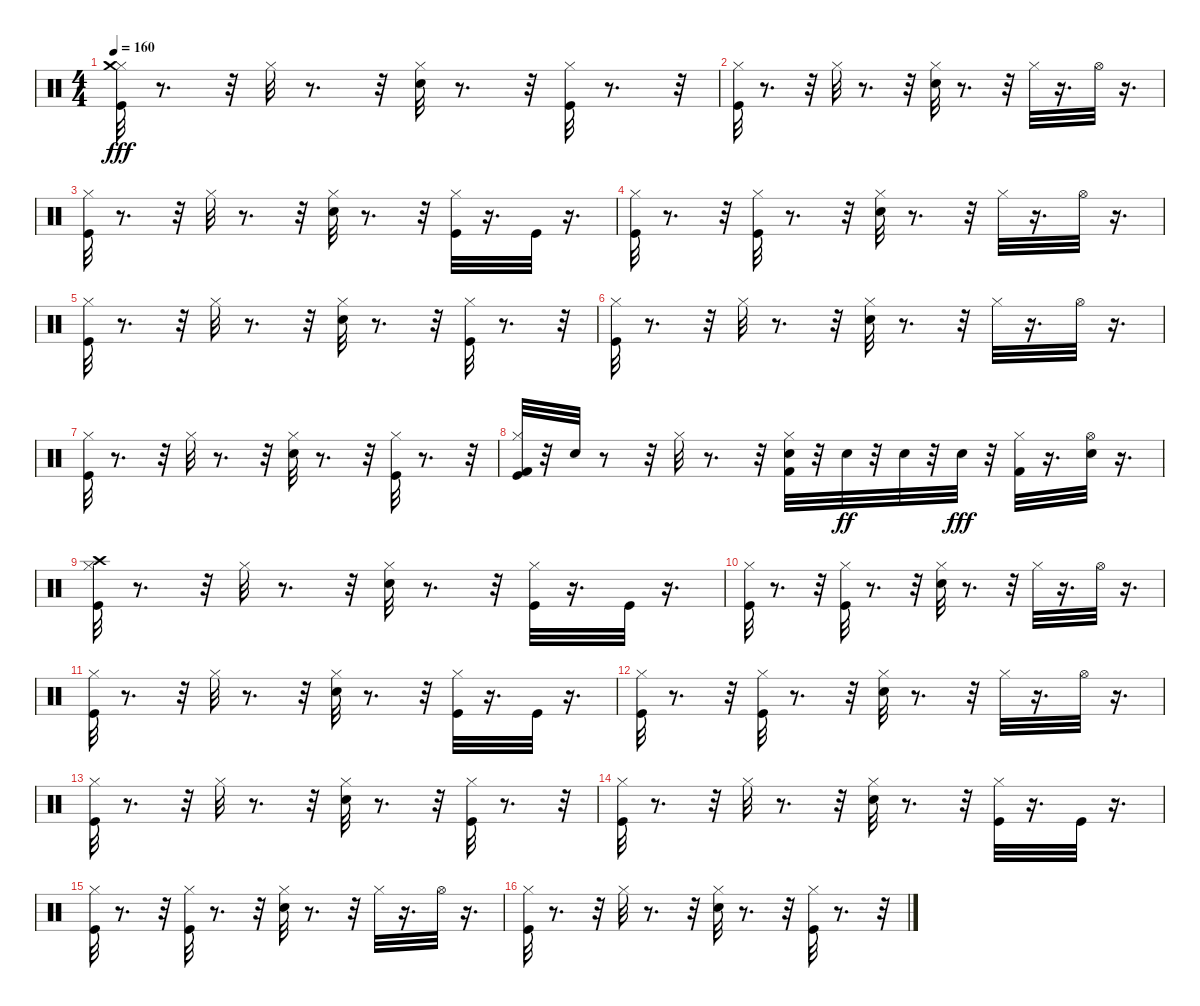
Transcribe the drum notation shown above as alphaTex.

\track "" {instrument percussion}
\staff {score}
\articulation defaults
\ts (4 4)
\tempo 160
\clef neutral
\ks c
("Kick (hit)" "Hi-Hat (closed)" "Crash medium (hit)").32{dy fff} r.8{d} r.32 "Hi-Hat (closed)".32 r.8{d} r.32 ("Electric Snare (hit)" "Hi-Hat (closed)").32 r.8{d} r.32 ("Kick (hit)" "Hi-Hat (closed)").32 r.8{d} r.32 |
("Hi-Hat (closed)" "Kick (hit)").32 r.8{d} r.32 "Hi-Hat (closed)".32 r.8{d} r.32 ("Hi-Hat (closed)" "Electric Snare (hit)").32 r.8{d} r.32 "Hi-Hat (closed)".32 r.16{d} "Hi-Hat (open)".32 r.16{d} |
("Hi-Hat (closed)" "Kick (hit)").32 r.8{d} r.32 "Hi-Hat (closed)".32 r.8{d} r.32 ("Hi-Hat (closed)" "Electric Snare (hit)").32 r.8{d} r.32 ("Hi-Hat (closed)" "Kick (hit)").32 r.16{d} "Kick (hit)".32 r.16{d} |
("Hi-Hat (closed)" "Kick (hit)").32 r.8{d} r.32 ("Hi-Hat (closed)" "Kick (hit)").32 r.8{d} r.32 ("Hi-Hat (closed)" "Electric Snare (hit)").32 r.8{d} r.32 "Hi-Hat (closed)".32 r.16{d} "Hi-Hat (open)".32 r.16{d} |
("Hi-Hat (closed)" "Kick (hit)").32 r.8{d} r.32 "Hi-Hat (closed)".32 r.8{d} r.32 ("Hi-Hat (closed)" "Electric Snare (hit)").32 r.8{d} r.32 ("Hi-Hat (closed)" "Kick (hit)").32 r.8{d} r.32 |
("Hi-Hat (closed)" "Kick (hit)").32 r.8{d} r.32 "Hi-Hat (closed)".32 r.8{d} r.32 ("Hi-Hat (closed)" "Electric Snare (hit)").32 r.8{d} r.32 "Hi-Hat (closed)".32 r.16{d} "Hi-Hat (open)".32 r.16{d} |
("Hi-Hat (closed)" "Kick (hit)").32 r.8{d} r.32 "Hi-Hat (closed)".32 r.8{d} r.32 ("Hi-Hat (closed)" "Electric Snare (hit)").32 r.8{d} r.32 ("Kick (hit)" "Hi-Hat (closed)").32 r.8{d} r.32 |
("Hi-Hat (closed)" "Kick (hit)" "Kick (hit) 2").32 r.32 "Electric Snare (hit)".32 r.8 r.32 "Hi-Hat (closed)".32 r.8{d} r.32 ("Hi-Hat (closed)" "Electric Snare (hit)" "Kick (hit) 2").32 r.32 "Electric Snare (hit)".32{dy ff} r.32 "Electric Snare (hit)".32 r.32 "Electric Snare (hit)".32{dy fff} r.32 ("Hi-Hat (closed)" "Kick (hit) 2").32 r.16{d} ("Hi-Hat (open)" "Electric Snare (hit)").32 r.16{d} |
("Hi-Hat (closed)" "Kick (hit)" "Crash high (hit)").32 r.8{d} r.32 "Hi-Hat (closed)".32 r.8{d} r.32 ("Hi-Hat (closed)" "Electric Snare (hit)").32 r.8{d} r.32 ("Hi-Hat (closed)" "Kick (hit)").32 r.16{d} "Kick (hit)".32 r.16{d} |
("Hi-Hat (closed)" "Kick (hit)").32 r.8{d} r.32 ("Hi-Hat (closed)" "Kick (hit)").32 r.8{d} r.32 ("Hi-Hat (closed)" "Electric Snare (hit)").32 r.8{d} r.32 "Hi-Hat (closed)".32 r.16{d} "Hi-Hat (open)".32 r.16{d} |
("Hi-Hat (closed)" "Kick (hit)").32 r.8{d} r.32 "Hi-Hat (closed)".32 r.8{d} r.32 ("Hi-Hat (closed)" "Electric Snare (hit)").32 r.8{d} r.32 ("Hi-Hat (closed)" "Kick (hit)").32 r.16{d} "Kick (hit)".32 r.16{d} |
("Hi-Hat (closed)" "Kick (hit)").32 r.8{d} r.32 ("Hi-Hat (closed)" "Kick (hit)").32 r.8{d} r.32 ("Hi-Hat (closed)" "Electric Snare (hit)").32 r.8{d} r.32 "Hi-Hat (closed)".32 r.16{d} "Hi-Hat (open)".32 r.16{d} |
("Hi-Hat (closed)" "Kick (hit)").32 r.8{d} r.32 "Hi-Hat (closed)".32 r.8{d} r.32 ("Hi-Hat (closed)" "Electric Snare (hit)").32 r.8{d} r.32 ("Hi-Hat (closed)" "Kick (hit)").32 r.8{d} r.32 |
("Hi-Hat (closed)" "Kick (hit)").32 r.8{d} r.32 "Hi-Hat (closed)".32 r.8{d} r.32 ("Hi-Hat (closed)" "Electric Snare (hit)").32 r.8{d} r.32 ("Hi-Hat (closed)" "Kick (hit)").32 r.16{d} "Kick (hit)".32 r.16{d} |
("Hi-Hat (closed)" "Kick (hit)").32 r.8{d} r.32 ("Hi-Hat (closed)" "Kick (hit)").32 r.8{d} r.32 ("Hi-Hat (closed)" "Electric Snare (hit)").32 r.8{d} r.32 "Hi-Hat (closed)".32 r.16{d} "Hi-Hat (open)".32 r.16{d} |
("Hi-Hat (closed)" "Kick (hit)").32 r.8{d} r.32 "Hi-Hat (closed)".32 r.8{d} r.32 ("Hi-Hat (closed)" "Electric Snare (hit)").32 r.8{d} r.32 ("Hi-Hat (closed)" "Kick (hit)").32 r.8{d} r.32
